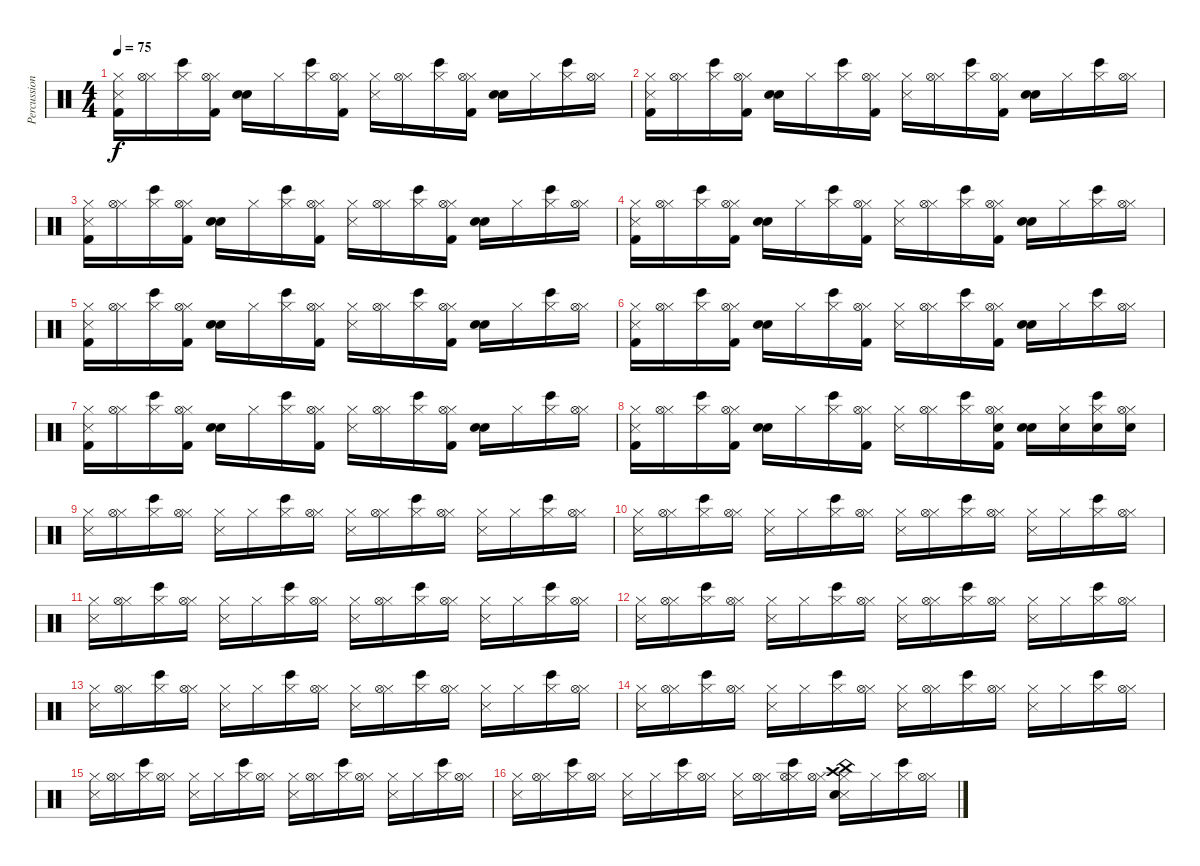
\track ("Percussion" "Percussion") {instrument percussion}
\staff {score}
\articulation defaults
\ts (4 4)
\tempo 75
\clef neutral
\ks c
("Hi-Hat (closed)" "Metronome (hit)" "Kick (hit) 2").16{dy f} ("Hi-Hat (closed)" "Hi-Hat (open)").16 ("Hi-Hat (closed)" "Bongo High (hit)").16 ("Hi-Hat (closed)" "Hi-Hat (open)" "Kick (hit) 2").16 ("Electric Snare (hit)" "Snare (hit) 2").16 "Hi-Hat (closed)".16 ("Hi-Hat (closed)" "Bongo High (hit)").16 ("Hi-Hat (closed)" "Hi-Hat (open)" "Kick (hit) 2").16 ("Hi-Hat (closed)" "Metronome (hit)").16 ("Hi-Hat (closed)" "Hi-Hat (open)").16 ("Hi-Hat (closed)" "Bongo High (hit)").16 ("Hi-Hat (closed)" "Hi-Hat (open)" "Kick (hit) 2").16 ("Electric Snare (hit)" "Snare (hit) 2").16 "Hi-Hat (closed)".16 ("Hi-Hat (closed)" "Bongo High (hit)").16 ("Hi-Hat (closed)" "Hi-Hat (open)").16 |
("Hi-Hat (closed)" "Metronome (hit)" "Kick (hit) 2").16 ("Hi-Hat (closed)" "Hi-Hat (open)").16 ("Hi-Hat (closed)" "Bongo High (hit)").16 ("Hi-Hat (closed)" "Hi-Hat (open)" "Kick (hit) 2").16 ("Electric Snare (hit)" "Snare (hit) 2").16 "Hi-Hat (closed)".16 ("Hi-Hat (closed)" "Bongo High (hit)").16 ("Hi-Hat (closed)" "Hi-Hat (open)" "Kick (hit) 2").16 ("Hi-Hat (closed)" "Metronome (hit)").16 ("Hi-Hat (closed)" "Hi-Hat (open)").16 ("Hi-Hat (closed)" "Bongo High (hit)").16 ("Hi-Hat (closed)" "Hi-Hat (open)" "Kick (hit) 2").16 ("Electric Snare (hit)" "Snare (hit) 2").16 "Hi-Hat (closed)".16 ("Hi-Hat (closed)" "Bongo High (hit)").16 ("Hi-Hat (closed)" "Hi-Hat (open)").16 |
("Hi-Hat (closed)" "Metronome (hit)" "Kick (hit) 2").16 ("Hi-Hat (closed)" "Hi-Hat (open)").16 ("Hi-Hat (closed)" "Bongo High (hit)").16 ("Hi-Hat (closed)" "Hi-Hat (open)" "Kick (hit) 2").16 ("Electric Snare (hit)" "Snare (hit) 2").16 "Hi-Hat (closed)".16 ("Hi-Hat (closed)" "Bongo High (hit)").16 ("Hi-Hat (closed)" "Hi-Hat (open)" "Kick (hit) 2").16 ("Hi-Hat (closed)" "Metronome (hit)").16 ("Hi-Hat (closed)" "Hi-Hat (open)").16 ("Hi-Hat (closed)" "Bongo High (hit)").16 ("Hi-Hat (closed)" "Hi-Hat (open)" "Kick (hit) 2").16 ("Electric Snare (hit)" "Snare (hit) 2").16 "Hi-Hat (closed)".16 ("Hi-Hat (closed)" "Bongo High (hit)").16 ("Hi-Hat (closed)" "Hi-Hat (open)").16 |
("Hi-Hat (closed)" "Metronome (hit)" "Kick (hit) 2").16 ("Hi-Hat (closed)" "Hi-Hat (open)").16 ("Hi-Hat (closed)" "Bongo High (hit)").16 ("Hi-Hat (closed)" "Hi-Hat (open)" "Kick (hit) 2").16 ("Electric Snare (hit)" "Snare (hit) 2").16 "Hi-Hat (closed)".16 ("Hi-Hat (closed)" "Bongo High (hit)").16 ("Hi-Hat (closed)" "Hi-Hat (open)" "Kick (hit) 2").16 ("Hi-Hat (closed)" "Metronome (hit)").16 ("Hi-Hat (closed)" "Hi-Hat (open)").16 ("Hi-Hat (closed)" "Bongo High (hit)").16 ("Hi-Hat (closed)" "Hi-Hat (open)" "Kick (hit) 2").16 ("Electric Snare (hit)" "Snare (hit) 2").16 "Hi-Hat (closed)".16 ("Hi-Hat (closed)" "Bongo High (hit)").16 ("Hi-Hat (closed)" "Hi-Hat (open)").16 |
("Hi-Hat (closed)" "Metronome (hit)" "Kick (hit) 2").16 ("Hi-Hat (closed)" "Hi-Hat (open)").16 ("Hi-Hat (closed)" "Bongo High (hit)").16 ("Hi-Hat (closed)" "Hi-Hat (open)" "Kick (hit) 2").16 ("Electric Snare (hit)" "Snare (hit) 2").16 "Hi-Hat (closed)".16 ("Hi-Hat (closed)" "Bongo High (hit)").16 ("Hi-Hat (closed)" "Hi-Hat (open)" "Kick (hit) 2").16 ("Hi-Hat (closed)" "Metronome (hit)").16 ("Hi-Hat (closed)" "Hi-Hat (open)").16 ("Hi-Hat (closed)" "Bongo High (hit)").16 ("Hi-Hat (closed)" "Hi-Hat (open)" "Kick (hit) 2").16 ("Electric Snare (hit)" "Snare (hit) 2").16 "Hi-Hat (closed)".16 ("Hi-Hat (closed)" "Bongo High (hit)").16 ("Hi-Hat (closed)" "Hi-Hat (open)").16 |
("Hi-Hat (closed)" "Metronome (hit)" "Kick (hit) 2").16 ("Hi-Hat (closed)" "Hi-Hat (open)").16 ("Hi-Hat (closed)" "Bongo High (hit)").16 ("Hi-Hat (closed)" "Hi-Hat (open)" "Kick (hit) 2").16 ("Electric Snare (hit)" "Snare (hit) 2").16 "Hi-Hat (closed)".16 ("Hi-Hat (closed)" "Bongo High (hit)").16 ("Hi-Hat (closed)" "Hi-Hat (open)" "Kick (hit) 2").16 ("Hi-Hat (closed)" "Metronome (hit)").16 ("Hi-Hat (closed)" "Hi-Hat (open)").16 ("Hi-Hat (closed)" "Bongo High (hit)").16 ("Hi-Hat (closed)" "Hi-Hat (open)" "Kick (hit) 2").16 ("Electric Snare (hit)" "Snare (hit) 2").16 "Hi-Hat (closed)".16 ("Hi-Hat (closed)" "Bongo High (hit)").16 ("Hi-Hat (closed)" "Hi-Hat (open)").16 |
("Hi-Hat (closed)" "Metronome (hit)" "Kick (hit) 2").16 ("Hi-Hat (closed)" "Hi-Hat (open)").16 ("Hi-Hat (closed)" "Bongo High (hit)").16 ("Hi-Hat (closed)" "Hi-Hat (open)" "Kick (hit) 2").16 ("Electric Snare (hit)" "Snare (hit) 2").16 "Hi-Hat (closed)".16 ("Hi-Hat (closed)" "Bongo High (hit)").16 ("Hi-Hat (closed)" "Hi-Hat (open)" "Kick (hit) 2").16 ("Hi-Hat (closed)" "Metronome (hit)").16 ("Hi-Hat (closed)" "Hi-Hat (open)").16 ("Hi-Hat (closed)" "Bongo High (hit)").16 ("Hi-Hat (closed)" "Hi-Hat (open)" "Kick (hit) 2").16 ("Electric Snare (hit)" "Snare (hit) 2").16 "Hi-Hat (closed)".16 ("Hi-Hat (closed)" "Bongo High (hit)").16 ("Hi-Hat (closed)" "Hi-Hat (open)").16 |
("Hi-Hat (closed)" "Metronome (hit)" "Kick (hit) 2").16 ("Hi-Hat (closed)" "Hi-Hat (open)").16 ("Hi-Hat (closed)" "Bongo High (hit)").16 ("Hi-Hat (closed)" "Hi-Hat (open)" "Kick (hit) 2").16 ("Electric Snare (hit)" "Snare (hit) 2").16 "Hi-Hat (closed)".16 ("Hi-Hat (closed)" "Bongo High (hit)").16 ("Hi-Hat (closed)" "Hi-Hat (open)" "Kick (hit) 2").16 ("Hi-Hat (closed)" "Metronome (hit)").16 ("Hi-Hat (closed)" "Hi-Hat (open)").16 ("Hi-Hat (closed)" "Bongo High (hit)").16 ("Hi-Hat (closed)" "Hi-Hat (open)" "Kick (hit) 2" "Electric Snare (hit)").16 ("Snare (hit) 2" "Electric Snare (hit)").16 ("Hi-Hat (closed)" "Electric Snare (hit)").16 ("Hi-Hat (closed)" "Bongo High (hit)" "Electric Snare (hit)").16 ("Hi-Hat (closed)" "Hi-Hat (open)" "Electric Snare (hit)").16 |
("Hi-Hat (closed)" "Metronome (hit)").16 ("Hi-Hat (closed)" "Hi-Hat (open)").16 ("Hi-Hat (closed)" "Bongo High (hit)").16 ("Hi-Hat (closed)" "Hi-Hat (open)").16 ("Hi-Hat (closed)" "Metronome (hit)").16 "Hi-Hat (closed)".16 ("Hi-Hat (closed)" "Bongo High (hit)").16 ("Hi-Hat (closed)" "Hi-Hat (open)").16 ("Hi-Hat (closed)" "Metronome (hit)").16 ("Hi-Hat (closed)" "Hi-Hat (open)").16 ("Hi-Hat (closed)" "Bongo High (hit)").16 ("Hi-Hat (closed)" "Hi-Hat (open)").16 ("Hi-Hat (closed)" "Metronome (hit)").16 "Hi-Hat (closed)".16 ("Hi-Hat (closed)" "Bongo High (hit)").16 ("Hi-Hat (closed)" "Hi-Hat (open)").16 |
("Hi-Hat (closed)" "Metronome (hit)").16 ("Hi-Hat (closed)" "Hi-Hat (open)").16 ("Hi-Hat (closed)" "Bongo High (hit)").16 ("Hi-Hat (closed)" "Hi-Hat (open)").16 ("Hi-Hat (closed)" "Metronome (hit)").16 "Hi-Hat (closed)".16 ("Hi-Hat (closed)" "Bongo High (hit)").16 ("Hi-Hat (closed)" "Hi-Hat (open)").16 ("Hi-Hat (closed)" "Metronome (hit)").16 ("Hi-Hat (closed)" "Hi-Hat (open)").16 ("Hi-Hat (closed)" "Bongo High (hit)").16 ("Hi-Hat (closed)" "Hi-Hat (open)").16 ("Hi-Hat (closed)" "Metronome (hit)").16 "Hi-Hat (closed)".16 ("Hi-Hat (closed)" "Bongo High (hit)").16 ("Hi-Hat (closed)" "Hi-Hat (open)").16 |
("Hi-Hat (closed)" "Metronome (hit)").16 ("Hi-Hat (closed)" "Hi-Hat (open)").16 ("Hi-Hat (closed)" "Bongo High (hit)").16 ("Hi-Hat (closed)" "Hi-Hat (open)").16 ("Hi-Hat (closed)" "Metronome (hit)").16 "Hi-Hat (closed)".16 ("Hi-Hat (closed)" "Bongo High (hit)").16 ("Hi-Hat (closed)" "Hi-Hat (open)").16 ("Hi-Hat (closed)" "Metronome (hit)").16 ("Hi-Hat (closed)" "Hi-Hat (open)").16 ("Hi-Hat (closed)" "Bongo High (hit)").16 ("Hi-Hat (closed)" "Hi-Hat (open)").16 ("Hi-Hat (closed)" "Metronome (hit)").16 "Hi-Hat (closed)".16 ("Hi-Hat (closed)" "Bongo High (hit)").16 ("Hi-Hat (closed)" "Hi-Hat (open)").16 |
("Hi-Hat (closed)" "Metronome (hit)").16 ("Hi-Hat (closed)" "Hi-Hat (open)").16 ("Hi-Hat (closed)" "Bongo High (hit)").16 ("Hi-Hat (closed)" "Hi-Hat (open)").16 ("Hi-Hat (closed)" "Metronome (hit)").16 "Hi-Hat (closed)".16 ("Hi-Hat (closed)" "Bongo High (hit)").16 ("Hi-Hat (closed)" "Hi-Hat (open)").16 ("Hi-Hat (closed)" "Metronome (hit)").16 ("Hi-Hat (closed)" "Hi-Hat (open)").16 ("Hi-Hat (closed)" "Bongo High (hit)").16 ("Hi-Hat (closed)" "Hi-Hat (open)").16 ("Hi-Hat (closed)" "Metronome (hit)").16 "Hi-Hat (closed)".16 ("Hi-Hat (closed)" "Bongo High (hit)").16 ("Hi-Hat (closed)" "Hi-Hat (open)").16 |
("Hi-Hat (closed)" "Metronome (hit)").16 ("Hi-Hat (closed)" "Hi-Hat (open)").16 ("Hi-Hat (closed)" "Bongo High (hit)").16 ("Hi-Hat (closed)" "Hi-Hat (open)").16 ("Hi-Hat (closed)" "Metronome (hit)").16 "Hi-Hat (closed)".16 ("Hi-Hat (closed)" "Bongo High (hit)").16 ("Hi-Hat (closed)" "Hi-Hat (open)").16 ("Hi-Hat (closed)" "Metronome (hit)").16 ("Hi-Hat (closed)" "Hi-Hat (open)").16 ("Hi-Hat (closed)" "Bongo High (hit)").16 ("Hi-Hat (closed)" "Hi-Hat (open)").16 ("Hi-Hat (closed)" "Metronome (hit)").16 "Hi-Hat (closed)".16 ("Hi-Hat (closed)" "Bongo High (hit)").16 ("Hi-Hat (closed)" "Hi-Hat (open)").16 |
("Hi-Hat (closed)" "Metronome (hit)").16 ("Hi-Hat (closed)" "Hi-Hat (open)").16 ("Hi-Hat (closed)" "Bongo High (hit)").16 ("Hi-Hat (closed)" "Hi-Hat (open)").16 ("Hi-Hat (closed)" "Metronome (hit)").16 "Hi-Hat (closed)".16 ("Hi-Hat (closed)" "Bongo High (hit)").16 ("Hi-Hat (closed)" "Hi-Hat (open)").16 ("Hi-Hat (closed)" "Metronome (hit)").16 ("Hi-Hat (closed)" "Hi-Hat (open)").16 ("Hi-Hat (closed)" "Bongo High (hit)").16 ("Hi-Hat (closed)" "Hi-Hat (open)").16 ("Hi-Hat (closed)" "Metronome (hit)").16 "Hi-Hat (closed)".16 ("Hi-Hat (closed)" "Bongo High (hit)").16 ("Hi-Hat (closed)" "Hi-Hat (open)").16 |
("Hi-Hat (closed)" "Metronome (hit)").16 ("Hi-Hat (closed)" "Hi-Hat (open)").16 ("Hi-Hat (closed)" "Bongo High (hit)").16 ("Hi-Hat (closed)" "Hi-Hat (open)").16 ("Hi-Hat (closed)" "Metronome (hit)").16 "Hi-Hat (closed)".16 ("Hi-Hat (closed)" "Bongo High (hit)").16 ("Hi-Hat (closed)" "Hi-Hat (open)").16 ("Hi-Hat (closed)" "Metronome (hit)").16 ("Hi-Hat (closed)" "Hi-Hat (open)").16 ("Hi-Hat (closed)" "Bongo High (hit)").16 ("Hi-Hat (closed)" "Hi-Hat (open)").16 ("Hi-Hat (closed)" "Metronome (hit)").16 "Hi-Hat (closed)".16 ("Hi-Hat (closed)" "Bongo High (hit)").16 ("Hi-Hat (closed)" "Hi-Hat (open)").16 |
("Hi-Hat (closed)" "Metronome (hit)").16 ("Hi-Hat (closed)" "Hi-Hat (open)").16 ("Hi-Hat (closed)" "Bongo High (hit)").16 ("Hi-Hat (closed)" "Hi-Hat (open)").16 ("Hi-Hat (closed)" "Metronome (hit)").16 "Hi-Hat (closed)".16 ("Hi-Hat (closed)" "Bongo High (hit)").16 ("Hi-Hat (closed)" "Hi-Hat (open)").16 ("Hi-Hat (closed)" "Metronome (hit)").16 ("Hi-Hat (closed)" "Hi-Hat (open)").16 ("Hi-Hat (closed)" "Bongo High (hit)" "Hi-Hat (open)").16 ("Hi-Hat (closed)" "Hi-Hat (open)").16 ("Hi-Hat (closed)" "Metronome (hit)" "Electric Snare (hit)" "Crash high (hit)" "China (hit)").16 "Hi-Hat (closed)".16 ("Hi-Hat (closed)" "Bongo High (hit)").16 ("Hi-Hat (closed)" "Hi-Hat (open)").16
